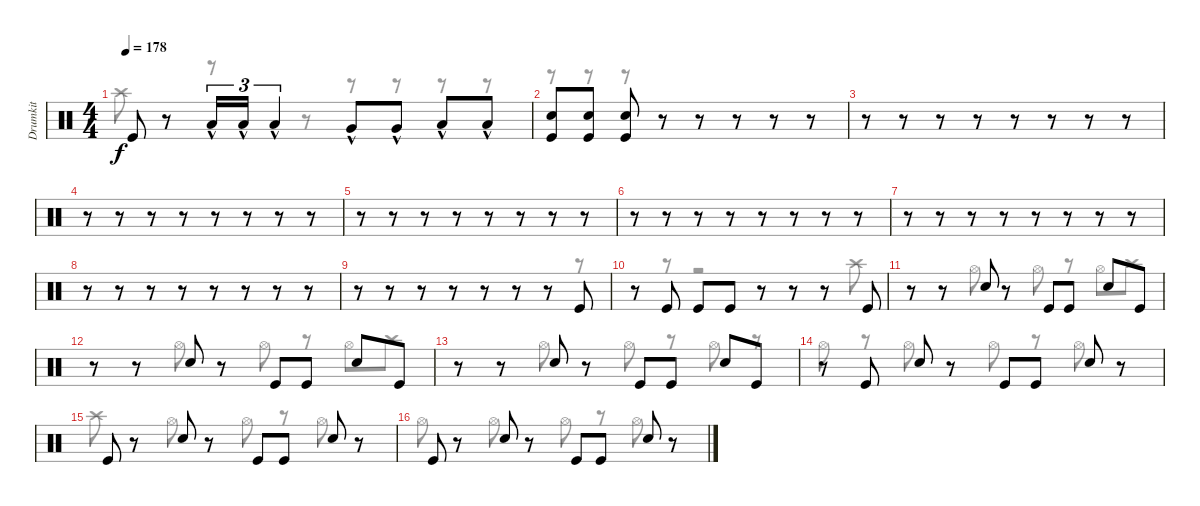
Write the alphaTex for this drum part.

\track ("Drumkit" "Drumkit") {instrument percussion}
\staff {score}
\articulation defaults
\voice
\ts (4 4)
\tempo 178
\clef neutral
\ks c "Kick (hit)".8{dy f}
r.8 "Low Tom (hit)"{hac}.16{tu (3 2)} "Low Tom (hit)"{hac}.16{tu (3 2)} "Low Tom (hit)"{hac}.4{tu (3 2)} "Very Low Tom (hit)"{hac}.8 "Very Low Tom (hit)"{hac}.8 "Low Floor Tom (hit)"{hac}.8 "Low Floor Tom (hit)"{hac}.8 |
("Snare (hit) 2" "Kick (hit)").8 ("Snare (hit) 2" "Kick (hit)").8 ("Snare (hit) 2" "Kick (hit)").8 r.8 r.8 r.8 r.8 r.8 |
\section ("" "")
r.8 r.8 r.8 r.8 r.8 r.8 r.8 r.8 |
r.8 r.8 r.8 r.8 r.8 r.8 r.8 r.8 |
r.8 r.8 r.8 r.8 r.8 r.8 r.8 r.8 |
r.8 r.8 r.8 r.8 r.8 r.8 r.8 r.8 |
r.8 r.8 r.8 r.8 r.8 r.8 r.8 r.8 |
r.8 r.8 r.8 r.8 r.8 r.8 r.8 r.8 |
r.8 r.8 r.8 r.8 r.8 r.8 r.8 "Kick (hit)".8 |
r.8 "Kick (hit)".8 "Kick (hit)".8 "Kick (hit)".8 r.8 r.8 r.8 "Kick (hit)".8 |
\section ("" "")
r.8 r.8 "Snare (hit) 2".8 r.8 "Kick (hit)".8 "Kick (hit)".8 "Snare (hit) 2".8 "Kick (hit)".8 |
r.8 r.8 "Snare (hit) 2".8 r.8 "Kick (hit)".8 "Kick (hit)".8 "Snare (hit) 2".8 "Kick (hit)".8 |
r.8 r.8 "Snare (hit) 2".8 r.8 "Kick (hit)".8 "Kick (hit)".8 "Snare (hit) 2".8 "Kick (hit)".8 |
r.8 "Kick (hit)".8 "Snare (hit) 2".8 r.8 "Kick (hit)".8 "Kick (hit)".8 "Snare (hit) 2".8 r.8 |
"Kick (hit)".8 r.8 "Snare (hit) 2".8 r.8 "Kick (hit)".8 "Kick (hit)".8 "Snare (hit) 2".8 r.8 |
"Kick (hit)".8 r.8 "Snare (hit) 2".8 r.8 "Kick (hit)".8 "Kick (hit)".8 "Snare (hit) 2".8 r.8
\voice
\clef neutral
\ottava regular
\simile none
\ks c "Crash high (hit)".8{dy f}
r.8 r.8 r.8 r.8 r.8 r.8 r.8 |
r.8 r.8 r.8 r.8 r.8 r.8 r.8 r.8 |
r.8 r.8 r.8 r.8 r.8 r.8 r.8 r.8 |
r.8 r.8 r.8 r.8 r.8 r.8 r.8 r.8 |
r.8 r.8 r.8 r.8 r.8 r.8 r.8 r.8 |
r.8 r.8 r.8 r.8 r.8 r.8 r.8 r.8 |
r.8 r.8 r.8 r.8 r.8 r.8 r.8 r.8 |
r.8 r.8 r.8 r.8 r.8 r.8 r.8 r.8 |
r.8 r.8 r.8 r.8 r.8 r.8 r.8 r.8 |
r.8 r.8 r.2 r.8 "Crash high (hit)".8 |
r.8 r.8 "Hi-Hat (open)".8 r.8 "Hi-Hat (open)".8 r.8 "Hi-Hat (open)".8 "Crash high (hit)".8 |
r.8 r.8 "Hi-Hat (open)".8 r.8 "Hi-Hat (open)".8 r.8 "Hi-Hat (open)".8 "Crash high (hit)".8 |
r.8 r.8 "Hi-Hat (open)".8 r.8 "Hi-Hat (open)".8 r.8 "Hi-Hat (open)".8 r.8 |
"Hi-Hat (open)".8 r.8 "Hi-Hat (open)".8 r.8 "Hi-Hat (open)".8 r.8 "Hi-Hat (open)".8 r.8 |
"Crash high (hit)".8 r.8 "Hi-Hat (open)".8 r.8 "Hi-Hat (open)".8 r.8 "Hi-Hat (open)".8 r.8 |
"Hi-Hat (open)".8 r.8 "Hi-Hat (open)".8 r.8 "Hi-Hat (open)".8 r.8 "Hi-Hat (open)".8 r.8
